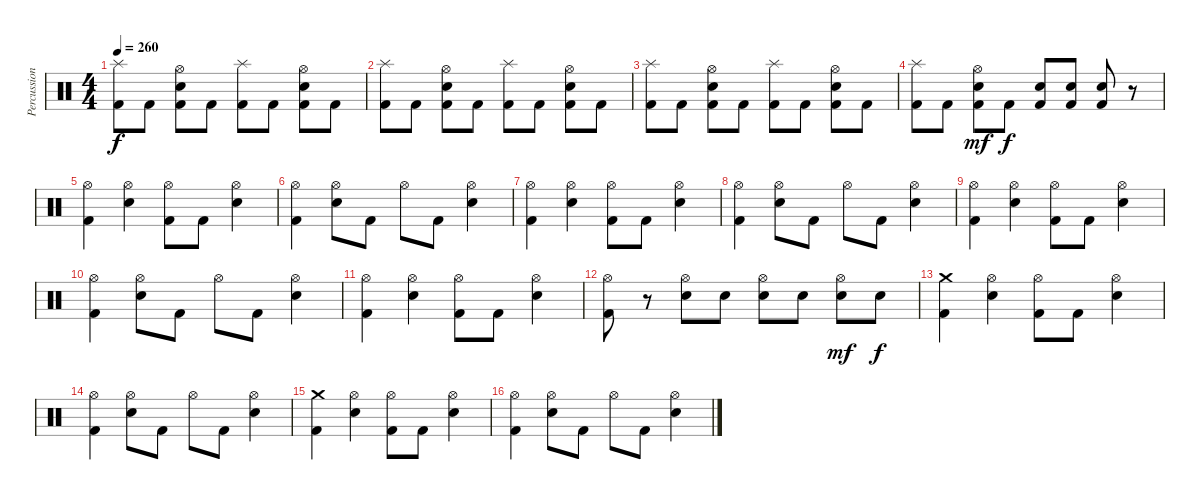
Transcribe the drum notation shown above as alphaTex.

\track ("Percussion" "Percussion") {instrument percussion}
\staff {score}
\articulation defaults
\ts (4 4)
\tempo 260
\clef neutral
\ks c
("Kick (hit) 2" "Splash (hit)").8{dy f} "Kick (hit) 2".8 ("Kick (hit) 2" "Electric Snare (hit)" "Hi-Hat (open)").8 "Kick (hit) 2".8 ("Kick (hit) 2" "Splash (hit)").8 "Kick (hit) 2".8 ("Kick (hit) 2" "Electric Snare (hit)" "Hi-Hat (open)").8 "Kick (hit) 2".8 |
("Kick (hit) 2" "Splash (hit)").8 "Kick (hit) 2".8 ("Kick (hit) 2" "Electric Snare (hit)" "Hi-Hat (open)").8 "Kick (hit) 2".8 ("Kick (hit) 2" "Splash (hit)").8 "Kick (hit) 2".8 ("Kick (hit) 2" "Electric Snare (hit)" "Hi-Hat (open)").8 "Kick (hit) 2".8 |
("Kick (hit) 2" "Splash (hit)").8 "Kick (hit) 2".8 ("Kick (hit) 2" "Electric Snare (hit)" "Hi-Hat (open)").8 "Kick (hit) 2".8 ("Kick (hit) 2" "Splash (hit)").8 "Kick (hit) 2".8 ("Kick (hit) 2" "Electric Snare (hit)" "Hi-Hat (open)").8 "Kick (hit) 2".8 |
("Kick (hit) 2" "Splash (hit)").8 "Kick (hit) 2".8 ("Kick (hit) 2" "Electric Snare (hit)" "Hi-Hat (open)").8{dy mf} "Kick (hit) 2".8{dy f} ("Kick (hit) 2" "Electric Snare (hit)").8 ("Kick (hit) 2" "Electric Snare (hit)").8 ("Kick (hit) 2" "Electric Snare (hit)").8 r.8 |
("Kick (hit) 2" "Hi-Hat (open)").4 ("Electric Snare (hit)" "Hi-Hat (open)").4 ("Kick (hit) 2" "Hi-Hat (open)").8 "Kick (hit) 2".8 ("Electric Snare (hit)" "Hi-Hat (open)").4 |
("Kick (hit) 2" "Hi-Hat (open)").4 ("Electric Snare (hit)" "Hi-Hat (open)").8 "Kick (hit) 2".8 "Hi-Hat (open)".8 "Kick (hit) 2".8 ("Electric Snare (hit)" "Hi-Hat (open)").4 |
("Kick (hit) 2" "Hi-Hat (open)").4 ("Electric Snare (hit)" "Hi-Hat (open)").4 ("Kick (hit) 2" "Hi-Hat (open)").8 "Kick (hit) 2".8 ("Electric Snare (hit)" "Hi-Hat (open)").4 |
("Kick (hit) 2" "Hi-Hat (open)").4 ("Electric Snare (hit)" "Hi-Hat (open)").8 "Kick (hit) 2".8 "Hi-Hat (open)".8 "Kick (hit) 2".8 ("Electric Snare (hit)" "Hi-Hat (open)").4 |
("Kick (hit) 2" "Hi-Hat (open)").4 ("Electric Snare (hit)" "Hi-Hat (open)").4 ("Kick (hit) 2" "Hi-Hat (open)").8 "Kick (hit) 2".8 ("Electric Snare (hit)" "Hi-Hat (open)").4 |
("Kick (hit) 2" "Hi-Hat (open)").4 ("Electric Snare (hit)" "Hi-Hat (open)").8 "Kick (hit) 2".8 "Hi-Hat (open)".8 "Kick (hit) 2".8 ("Electric Snare (hit)" "Hi-Hat (open)").4 |
("Kick (hit) 2" "Hi-Hat (open)").4 ("Electric Snare (hit)" "Hi-Hat (open)").4 ("Kick (hit) 2" "Hi-Hat (open)").8 "Kick (hit) 2".8 ("Electric Snare (hit)" "Hi-Hat (open)").4 |
("Kick (hit) 2" "Hi-Hat (open)").8 r.8 ("Electric Snare (hit)" "Hi-Hat (open)").8 "Electric Snare (hit)".8 ("Electric Snare (hit)" "Hi-Hat (open)").8 "Electric Snare (hit)".8 ("Electric Snare (hit)" "Hi-Hat (open)").8{dy mf} "Electric Snare (hit)".8{dy f} |
("Kick (hit) 2" "Crash medium (hit)").4 ("Electric Snare (hit)" "Hi-Hat (open)").4 ("Kick (hit) 2" "Hi-Hat (open)").8 "Kick (hit) 2".8 ("Electric Snare (hit)" "Hi-Hat (open)").4 |
("Kick (hit) 2" "Hi-Hat (open)").4 ("Electric Snare (hit)" "Hi-Hat (open)").8 "Kick (hit) 2".8 "Hi-Hat (open)".8 "Kick (hit) 2".8 ("Electric Snare (hit)" "Hi-Hat (open)").4 |
("Kick (hit) 2" "Crash medium (hit)").4 ("Electric Snare (hit)" "Hi-Hat (open)").4 ("Kick (hit) 2" "Hi-Hat (open)").8 "Kick (hit) 2".8 ("Electric Snare (hit)" "Hi-Hat (open)").4 |
("Kick (hit) 2" "Hi-Hat (open)").4 ("Electric Snare (hit)" "Hi-Hat (open)").8 "Kick (hit) 2".8 "Hi-Hat (open)".8 "Kick (hit) 2".8 ("Electric Snare (hit)" "Hi-Hat (open)").4
